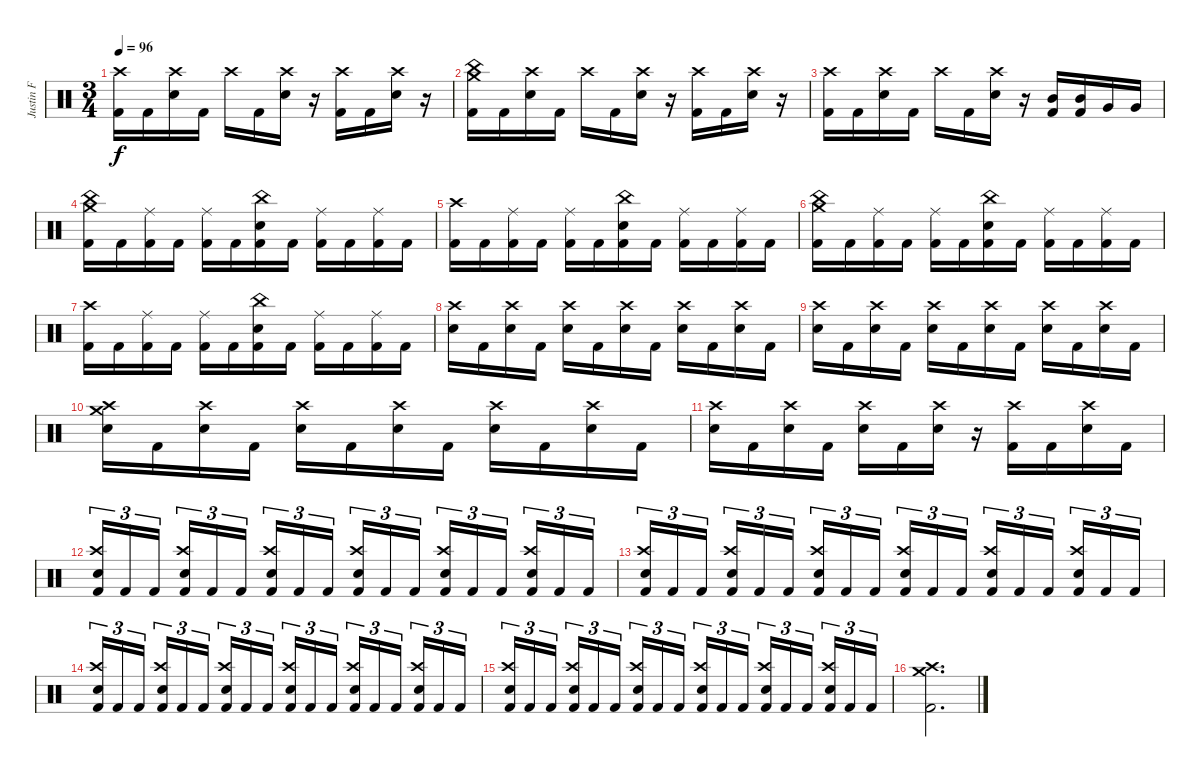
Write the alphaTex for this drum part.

\track ("Justin F" "Justin F") {instrument percussion}
\staff {score}
\articulation defaults
\ts (3 4)
\tempo 96
\clef neutral
\ks c
("Kick (hit) 2" "Crash high (hit)").16{dy f} "Kick (hit) 2".16 ("Crash high (hit)" "Electric Snare (hit)").16 "Kick (hit) 2".16 "Crash high (hit)".16 "Kick (hit) 2".16 ("Crash high (hit)" "Electric Snare (hit)").16 r.16 ("Kick (hit) 2" "Crash high (hit)").16 "Kick (hit) 2".16 ("Crash high (hit)" "Electric Snare (hit)").16 r.16 |
("Kick (hit) 2" "Crash medium (hit)" "China (hit)").16 "Kick (hit) 2".16 ("Crash high (hit)" "Electric Snare (hit)").16 "Kick (hit) 2".16 "Crash high (hit)".16 "Kick (hit) 2".16 ("Crash high (hit)" "Electric Snare (hit)").16 r.16 ("Kick (hit) 2" "Crash high (hit)").16 "Kick (hit) 2".16 ("Crash high (hit)" "Electric Snare (hit)").16 r.16 |
("Kick (hit) 2" "Crash high (hit)").16 "Kick (hit) 2".16 ("Crash high (hit)" "Electric Snare (hit)").16 "Kick (hit) 2".16 "Crash high (hit)".16 "Kick (hit) 2".16 ("Crash high (hit)" "Electric Snare (hit)").16 r.16 ("Kick (hit) 2" "Mid Tom (hit)").16 ("Kick (hit) 2" "Mid Tom (hit)").16 "Very Low Tom (hit)".16 "Very Low Tom (hit)".16 |
("Kick (hit) 2" "Crash medium (hit)" "China (hit)").16 "Kick (hit) 2".16 ("Kick (hit) 2" "Ride (middle)").16 "Kick (hit) 2".16 ("Kick (hit) 2" "Ride (middle)").16 "Kick (hit) 2".16 ("Kick (hit) 2" "China (hit)" "Electric Snare (hit)").16 "Kick (hit) 2".16 ("Kick (hit) 2" "Ride (middle)").16 "Kick (hit) 2".16 ("Kick (hit) 2" "Ride (middle)").16 "Kick (hit) 2".16 |
("Kick (hit) 2" "Crash high (hit)").16 "Kick (hit) 2".16 ("Kick (hit) 2" "Ride (middle)").16 "Kick (hit) 2".16 ("Kick (hit) 2" "Ride (middle)").16 "Kick (hit) 2".16 ("Kick (hit) 2" "China (hit)" "Electric Snare (hit)").16 "Kick (hit) 2".16 ("Kick (hit) 2" "Ride (middle)").16 "Kick (hit) 2".16 ("Kick (hit) 2" "Ride (middle)").16 "Kick (hit) 2".16 |
("Kick (hit) 2" "Crash medium (hit)" "China (hit)").16 "Kick (hit) 2".16 ("Kick (hit) 2" "Ride (middle)").16 "Kick (hit) 2".16 ("Kick (hit) 2" "Ride (middle)").16 "Kick (hit) 2".16 ("Kick (hit) 2" "China (hit)" "Electric Snare (hit)").16 "Kick (hit) 2".16 ("Kick (hit) 2" "Ride (middle)").16 "Kick (hit) 2".16 ("Kick (hit) 2" "Ride (middle)").16 "Kick (hit) 2".16 |
("Kick (hit) 2" "Crash high (hit)").16 "Kick (hit) 2".16 ("Kick (hit) 2" "Ride (middle)").16 "Kick (hit) 2".16 ("Kick (hit) 2" "Ride (middle)").16 "Kick (hit) 2".16 ("Kick (hit) 2" "China (hit)" "Electric Snare (hit)").16 "Kick (hit) 2".16 ("Kick (hit) 2" "Ride (middle)").16 "Kick (hit) 2".16 ("Kick (hit) 2" "Ride (middle)").16 "Kick (hit) 2".16 |
("Crash high (hit)" "Electric Snare (hit)").16 "Kick (hit) 2".16 ("Crash high (hit)" "Electric Snare (hit)").16 "Kick (hit) 2".16 ("Crash high (hit)" "Electric Snare (hit)").16 "Kick (hit) 2".16 ("Crash high (hit)" "Electric Snare (hit)").16 "Kick (hit) 2".16 ("Crash high (hit)" "Electric Snare (hit)").16 "Kick (hit) 2".16 ("Crash high (hit)" "Electric Snare (hit)").16 "Kick (hit) 2".16 |
("Crash high (hit)" "Electric Snare (hit)").16 "Kick (hit) 2".16 ("Crash high (hit)" "Electric Snare (hit)").16 "Kick (hit) 2".16 ("Crash high (hit)" "Electric Snare (hit)").16 "Kick (hit) 2".16 ("Crash high (hit)" "Electric Snare (hit)").16 "Kick (hit) 2".16 ("Crash high (hit)" "Electric Snare (hit)").16 "Kick (hit) 2".16 ("Crash high (hit)" "Electric Snare (hit)").16 "Kick (hit) 2".16 |
("Crash high (hit)" "Crash medium (hit)" "Electric Snare (hit)").16 "Kick (hit) 2".16 ("Crash high (hit)" "Electric Snare (hit)").16 "Kick (hit) 2".16 ("Crash high (hit)" "Electric Snare (hit)").16 "Kick (hit) 2".16 ("Crash high (hit)" "Electric Snare (hit)").16 "Kick (hit) 2".16 ("Crash high (hit)" "Electric Snare (hit)").16 "Kick (hit) 2".16 ("Crash high (hit)" "Electric Snare (hit)").16 "Kick (hit) 2".16 |
("Crash high (hit)" "Electric Snare (hit)").16 "Kick (hit) 2".16 ("Crash high (hit)" "Electric Snare (hit)").16 "Kick (hit) 2".16 ("Crash high (hit)" "Electric Snare (hit)").16 "Kick (hit) 2".16 ("Crash high (hit)" "Electric Snare (hit)").16 r.16 ("Kick (hit) 2" "Crash high (hit)").16 "Kick (hit) 2".16 ("Crash high (hit)" "Electric Snare (hit)").16 "Kick (hit) 2".16 |
("Kick (hit) 2" "Crash high (hit)" "Electric Snare (hit)").16{tu (3 2)} "Kick (hit) 2".16{tu (3 2)} "Kick (hit) 2".16{tu (3 2) beam splitsecondary} ("Kick (hit) 2" "Crash high (hit)" "Electric Snare (hit)").16{tu (3 2)} "Kick (hit) 2".16{tu (3 2)} "Kick (hit) 2".16{tu (3 2)} ("Kick (hit) 2" "Crash high (hit)" "Electric Snare (hit)").16{tu (3 2)} "Kick (hit) 2".16{tu (3 2)} "Kick (hit) 2".16{tu (3 2) beam splitsecondary} ("Kick (hit) 2" "Crash high (hit)" "Electric Snare (hit)").16{tu (3 2)} "Kick (hit) 2".16{tu (3 2)} "Kick (hit) 2".16{tu (3 2)} ("Kick (hit) 2" "Crash high (hit)" "Electric Snare (hit)").16{tu (3 2)} "Kick (hit) 2".16{tu (3 2)} "Kick (hit) 2".16{tu (3 2) beam splitsecondary} ("Kick (hit) 2" "Crash high (hit)" "Electric Snare (hit)").16{tu (3 2)} "Kick (hit) 2".16{tu (3 2)} "Kick (hit) 2".16{tu (3 2)} |
("Kick (hit) 2" "Crash high (hit)" "Electric Snare (hit)").16{tu (3 2)} "Kick (hit) 2".16{tu (3 2)} "Kick (hit) 2".16{tu (3 2) beam splitsecondary} ("Kick (hit) 2" "Crash high (hit)" "Electric Snare (hit)").16{tu (3 2)} "Kick (hit) 2".16{tu (3 2)} "Kick (hit) 2".16{tu (3 2)} ("Kick (hit) 2" "Crash high (hit)" "Electric Snare (hit)").16{tu (3 2)} "Kick (hit) 2".16{tu (3 2)} "Kick (hit) 2".16{tu (3 2) beam splitsecondary} ("Kick (hit) 2" "Crash high (hit)" "Electric Snare (hit)").16{tu (3 2)} "Kick (hit) 2".16{tu (3 2)} "Kick (hit) 2".16{tu (3 2)} ("Kick (hit) 2" "Crash high (hit)" "Electric Snare (hit)").16{tu (3 2)} "Kick (hit) 2".16{tu (3 2)} "Kick (hit) 2".16{tu (3 2) beam splitsecondary} ("Kick (hit) 2" "Crash high (hit)" "Electric Snare (hit)").16{tu (3 2)} "Kick (hit) 2".16{tu (3 2)} "Kick (hit) 2".16{tu (3 2)} |
("Kick (hit) 2" "Crash high (hit)" "Electric Snare (hit)").16{tu (3 2)} "Kick (hit) 2".16{tu (3 2)} "Kick (hit) 2".16{tu (3 2) beam splitsecondary} ("Kick (hit) 2" "Crash high (hit)" "Electric Snare (hit)").16{tu (3 2)} "Kick (hit) 2".16{tu (3 2)} "Kick (hit) 2".16{tu (3 2)} ("Kick (hit) 2" "Crash high (hit)" "Electric Snare (hit)").16{tu (3 2)} "Kick (hit) 2".16{tu (3 2)} "Kick (hit) 2".16{tu (3 2) beam splitsecondary} ("Kick (hit) 2" "Crash high (hit)" "Electric Snare (hit)").16{tu (3 2)} "Kick (hit) 2".16{tu (3 2)} "Kick (hit) 2".16{tu (3 2)} ("Kick (hit) 2" "Crash high (hit)" "Electric Snare (hit)").16{tu (3 2)} "Kick (hit) 2".16{tu (3 2)} "Kick (hit) 2".16{tu (3 2) beam splitsecondary} ("Kick (hit) 2" "Crash high (hit)" "Electric Snare (hit)").16{tu (3 2)} "Kick (hit) 2".16{tu (3 2)} "Kick (hit) 2".16{tu (3 2)} |
("Kick (hit) 2" "Crash high (hit)" "Electric Snare (hit)").16{tu (3 2)} "Kick (hit) 2".16{tu (3 2)} "Kick (hit) 2".16{tu (3 2) beam splitsecondary} ("Kick (hit) 2" "Crash high (hit)" "Electric Snare (hit)").16{tu (3 2)} "Kick (hit) 2".16{tu (3 2)} "Kick (hit) 2".16{tu (3 2)} ("Kick (hit) 2" "Crash high (hit)" "Electric Snare (hit)").16{tu (3 2)} "Kick (hit) 2".16{tu (3 2)} "Kick (hit) 2".16{tu (3 2) beam splitsecondary} ("Kick (hit) 2" "Crash high (hit)" "Electric Snare (hit)").16{tu (3 2)} "Kick (hit) 2".16{tu (3 2)} "Kick (hit) 2".16{tu (3 2)} ("Kick (hit) 2" "Crash high (hit)" "Electric Snare (hit)").16{tu (3 2)} "Kick (hit) 2".16{tu (3 2)} "Kick (hit) 2".16{tu (3 2) beam splitsecondary} ("Kick (hit) 2" "Crash high (hit)" "Electric Snare (hit)").16{tu (3 2)} "Kick (hit) 2".16{tu (3 2)} "Kick (hit) 2".16{tu (3 2)} |
("Kick (hit) 2" "Crash medium (hit)" "Crash high (hit)").2{d}
